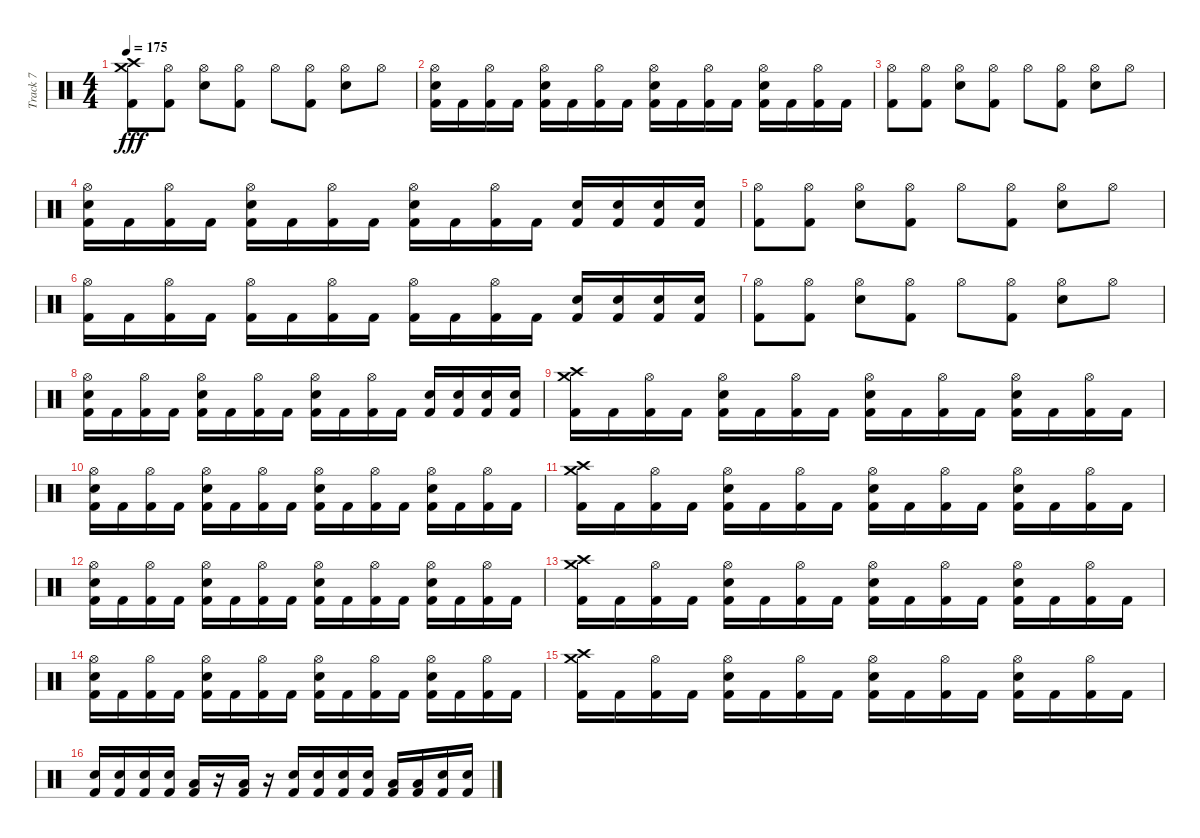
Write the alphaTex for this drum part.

\track ("Track 7" "Track 7") {instrument percussion}
\staff {score}
\articulation defaults
\ts (4 4)
\tempo 175
\clef neutral
\ks c
("Kick (hit) 2" "Crash high (hit)" "Crash medium (hit)").8{dy fff} ("Kick (hit) 2" "Hi-Hat (open)").8 ("Electric Snare (hit)" "Hi-Hat (open)").8 ("Kick (hit) 2" "Hi-Hat (open)").8 "Hi-Hat (open)".8 ("Kick (hit) 2" "Hi-Hat (open)").8 ("Electric Snare (hit)" "Hi-Hat (open)").8 "Hi-Hat (open)".8 |
("Kick (hit) 2" "Electric Snare (hit)" "Hi-Hat (open)").16 "Kick (hit) 2".16 ("Kick (hit) 2" "Hi-Hat (open)").16 "Kick (hit) 2".16 ("Kick (hit) 2" "Electric Snare (hit)" "Hi-Hat (open)").16 "Kick (hit) 2".16 ("Kick (hit) 2" "Hi-Hat (open)").16 "Kick (hit) 2".16 ("Kick (hit) 2" "Electric Snare (hit)" "Hi-Hat (open)").16 "Kick (hit) 2".16 ("Kick (hit) 2" "Hi-Hat (open)").16 "Kick (hit) 2".16 ("Kick (hit) 2" "Electric Snare (hit)" "Hi-Hat (open)").16 "Kick (hit) 2".16 ("Kick (hit) 2" "Hi-Hat (open)").16 "Kick (hit) 2".16 |
("Kick (hit) 2" "Hi-Hat (open)").8 ("Kick (hit) 2" "Hi-Hat (open)").8 ("Electric Snare (hit)" "Hi-Hat (open)").8 ("Kick (hit) 2" "Hi-Hat (open)").8 "Hi-Hat (open)".8 ("Kick (hit) 2" "Hi-Hat (open)").8 ("Electric Snare (hit)" "Hi-Hat (open)").8 "Hi-Hat (open)".8 |
("Kick (hit) 2" "Electric Snare (hit)" "Hi-Hat (open)").16 "Kick (hit) 2".16 ("Kick (hit) 2" "Hi-Hat (open)").16 "Kick (hit) 2".16 ("Kick (hit) 2" "Electric Snare (hit)" "Hi-Hat (open)").16 "Kick (hit) 2".16 ("Kick (hit) 2" "Hi-Hat (open)").16 "Kick (hit) 2".16 ("Kick (hit) 2" "Electric Snare (hit)" "Hi-Hat (open)").16 "Kick (hit) 2".16 ("Kick (hit) 2" "Hi-Hat (open)").16 "Kick (hit) 2".16 ("Kick (hit) 2" "Electric Snare (hit)").16 ("Kick (hit) 2" "Electric Snare (hit)").16 ("Kick (hit) 2" "Electric Snare (hit)").16 ("Kick (hit) 2" "Electric Snare (hit)").16 |
("Kick (hit) 2" "Hi-Hat (open)").8 ("Kick (hit) 2" "Hi-Hat (open)").8 ("Electric Snare (hit)" "Hi-Hat (open)").8 ("Kick (hit) 2" "Hi-Hat (open)").8 "Hi-Hat (open)".8 ("Kick (hit) 2" "Hi-Hat (open)").8 ("Electric Snare (hit)" "Hi-Hat (open)").8 "Hi-Hat (open)".8 |
("Kick (hit) 2" "Hi-Hat (open)").16 "Kick (hit) 2".16 ("Kick (hit) 2" "Hi-Hat (open)").16 "Kick (hit) 2".16 ("Kick (hit) 2" "Hi-Hat (open)").16 "Kick (hit) 2".16 ("Kick (hit) 2" "Hi-Hat (open)").16 "Kick (hit) 2".16 ("Kick (hit) 2" "Hi-Hat (open)").16 "Kick (hit) 2".16 ("Kick (hit) 2" "Hi-Hat (open)").16 "Kick (hit) 2".16 ("Kick (hit) 2" "Electric Snare (hit)").16 ("Kick (hit) 2" "Electric Snare (hit)").16 ("Kick (hit) 2" "Electric Snare (hit)").16 ("Kick (hit) 2" "Electric Snare (hit)").16 |
("Kick (hit) 2" "Hi-Hat (open)").8 ("Kick (hit) 2" "Hi-Hat (open)").8 ("Electric Snare (hit)" "Hi-Hat (open)").8 ("Kick (hit) 2" "Hi-Hat (open)").8 "Hi-Hat (open)".8 ("Kick (hit) 2" "Hi-Hat (open)").8 ("Electric Snare (hit)" "Hi-Hat (open)").8 "Hi-Hat (open)".8 |
("Kick (hit) 2" "Electric Snare (hit)" "Hi-Hat (open)").16 "Kick (hit) 2".16 ("Kick (hit) 2" "Hi-Hat (open)").16 "Kick (hit) 2".16 ("Kick (hit) 2" "Electric Snare (hit)" "Hi-Hat (open)").16 "Kick (hit) 2".16 ("Kick (hit) 2" "Hi-Hat (open)").16 "Kick (hit) 2".16 ("Kick (hit) 2" "Electric Snare (hit)" "Hi-Hat (open)").16 "Kick (hit) 2".16 ("Kick (hit) 2" "Hi-Hat (open)").16 "Kick (hit) 2".16 ("Kick (hit) 2" "Electric Snare (hit)").16 ("Kick (hit) 2" "Electric Snare (hit)").16 ("Kick (hit) 2" "Electric Snare (hit)").16 ("Kick (hit) 2" "Electric Snare (hit)").16 |
("Kick (hit) 2" "Crash medium (hit)" "Crash high (hit)").16 "Kick (hit) 2".16 ("Kick (hit) 2" "Hi-Hat (open)").16 "Kick (hit) 2".16 ("Kick (hit) 2" "Electric Snare (hit)" "Hi-Hat (open)").16 "Kick (hit) 2".16 ("Kick (hit) 2" "Hi-Hat (open)").16 "Kick (hit) 2".16 ("Kick (hit) 2" "Electric Snare (hit)" "Hi-Hat (open)").16 "Kick (hit) 2".16 ("Kick (hit) 2" "Hi-Hat (open)").16 "Kick (hit) 2".16 ("Kick (hit) 2" "Electric Snare (hit)" "Hi-Hat (open)").16 "Kick (hit) 2".16 ("Kick (hit) 2" "Hi-Hat (open)").16 "Kick (hit) 2".16 |
("Kick (hit) 2" "Electric Snare (hit)" "Hi-Hat (open)").16 "Kick (hit) 2".16 ("Kick (hit) 2" "Hi-Hat (open)").16 "Kick (hit) 2".16 ("Kick (hit) 2" "Electric Snare (hit)" "Hi-Hat (open)").16 "Kick (hit) 2".16 ("Kick (hit) 2" "Hi-Hat (open)").16 "Kick (hit) 2".16 ("Kick (hit) 2" "Electric Snare (hit)" "Hi-Hat (open)").16 "Kick (hit) 2".16 ("Kick (hit) 2" "Hi-Hat (open)").16 "Kick (hit) 2".16 ("Kick (hit) 2" "Electric Snare (hit)" "Hi-Hat (open)").16 "Kick (hit) 2".16 ("Kick (hit) 2" "Hi-Hat (open)").16 "Kick (hit) 2".16 |
("Kick (hit) 2" "Crash medium (hit)" "Crash high (hit)").16 "Kick (hit) 2".16 ("Kick (hit) 2" "Hi-Hat (open)").16 "Kick (hit) 2".16 ("Kick (hit) 2" "Electric Snare (hit)" "Hi-Hat (open)").16 "Kick (hit) 2".16 ("Kick (hit) 2" "Hi-Hat (open)").16 "Kick (hit) 2".16 ("Kick (hit) 2" "Electric Snare (hit)" "Hi-Hat (open)").16 "Kick (hit) 2".16 ("Kick (hit) 2" "Hi-Hat (open)").16 "Kick (hit) 2".16 ("Kick (hit) 2" "Electric Snare (hit)" "Hi-Hat (open)").16 "Kick (hit) 2".16 ("Kick (hit) 2" "Hi-Hat (open)").16 "Kick (hit) 2".16 |
("Kick (hit) 2" "Electric Snare (hit)" "Hi-Hat (open)").16 "Kick (hit) 2".16 ("Kick (hit) 2" "Hi-Hat (open)").16 "Kick (hit) 2".16 ("Kick (hit) 2" "Electric Snare (hit)" "Hi-Hat (open)").16 "Kick (hit) 2".16 ("Kick (hit) 2" "Hi-Hat (open)").16 "Kick (hit) 2".16 ("Kick (hit) 2" "Electric Snare (hit)" "Hi-Hat (open)").16 "Kick (hit) 2".16 ("Kick (hit) 2" "Hi-Hat (open)").16 "Kick (hit) 2".16 ("Kick (hit) 2" "Electric Snare (hit)" "Hi-Hat (open)").16 "Kick (hit) 2".16 ("Kick (hit) 2" "Hi-Hat (open)").16 "Kick (hit) 2".16 |
("Kick (hit) 2" "Crash medium (hit)" "Crash high (hit)").16 "Kick (hit) 2".16 ("Kick (hit) 2" "Hi-Hat (open)").16 "Kick (hit) 2".16 ("Kick (hit) 2" "Electric Snare (hit)" "Hi-Hat (open)").16 "Kick (hit) 2".16 ("Kick (hit) 2" "Hi-Hat (open)").16 "Kick (hit) 2".16 ("Kick (hit) 2" "Electric Snare (hit)" "Hi-Hat (open)").16 "Kick (hit) 2".16 ("Kick (hit) 2" "Hi-Hat (open)").16 "Kick (hit) 2".16 ("Kick (hit) 2" "Electric Snare (hit)" "Hi-Hat (open)").16 "Kick (hit) 2".16 ("Kick (hit) 2" "Hi-Hat (open)").16 "Kick (hit) 2".16 |
("Kick (hit) 2" "Electric Snare (hit)" "Hi-Hat (open)").16 "Kick (hit) 2".16 ("Kick (hit) 2" "Hi-Hat (open)").16 "Kick (hit) 2".16 ("Kick (hit) 2" "Electric Snare (hit)" "Hi-Hat (open)").16 "Kick (hit) 2".16 ("Kick (hit) 2" "Hi-Hat (open)").16 "Kick (hit) 2".16 ("Kick (hit) 2" "Electric Snare (hit)" "Hi-Hat (open)").16 "Kick (hit) 2".16 ("Kick (hit) 2" "Hi-Hat (open)").16 "Kick (hit) 2".16 ("Kick (hit) 2" "Electric Snare (hit)" "Hi-Hat (open)").16 "Kick (hit) 2".16 ("Kick (hit) 2" "Hi-Hat (open)").16 "Kick (hit) 2".16 |
("Kick (hit) 2" "Crash medium (hit)" "Crash high (hit)").16 "Kick (hit) 2".16 ("Kick (hit) 2" "Hi-Hat (open)").16 "Kick (hit) 2".16 ("Kick (hit) 2" "Electric Snare (hit)" "Hi-Hat (open)").16 "Kick (hit) 2".16 ("Kick (hit) 2" "Hi-Hat (open)").16 "Kick (hit) 2".16 ("Kick (hit) 2" "Electric Snare (hit)" "Hi-Hat (open)").16 "Kick (hit) 2".16 ("Kick (hit) 2" "Hi-Hat (open)").16 "Kick (hit) 2".16 ("Kick (hit) 2" "Electric Snare (hit)" "Hi-Hat (open)").16 "Kick (hit) 2".16 ("Kick (hit) 2" "Hi-Hat (open)").16 "Kick (hit) 2".16 |
("Kick (hit) 2" "Electric Snare (hit)").16 ("Kick (hit) 2" "Electric Snare (hit)").16 ("Kick (hit) 2" "Electric Snare (hit)").16 ("Kick (hit) 2" "Electric Snare (hit)").16 ("Kick (hit) 2" "Low Floor Tom (hit)").16 r.16 ("Kick (hit) 2" "Low Floor Tom (hit)").16 r.16 ("Kick (hit) 2" "Electric Snare (hit)").16 ("Kick (hit) 2" "Electric Snare (hit)").16 ("Kick (hit) 2" "Electric Snare (hit)").16 ("Kick (hit) 2" "Electric Snare (hit)").16 ("Kick (hit) 2" "Low Tom (hit)").16 ("Kick (hit) 2" "Low Tom (hit)").16 ("Kick (hit) 2" "Electric Snare (hit)").16 ("Kick (hit) 2" "Electric Snare (hit)").16
